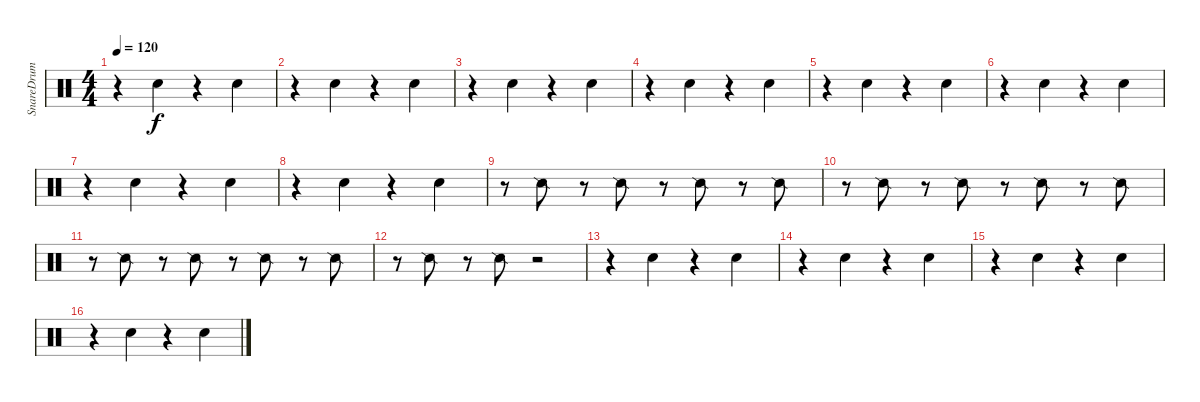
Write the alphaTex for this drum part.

\track ("SnareDrum" "SnareDrum") {instrument percussion}
\staff {score}
\articulation defaults
\ts (4 4)
\tempo 120
\clef neutral
\ks c
r.4{dy f} "Snare (hit) 2".4 r.4 "Snare (hit) 2".4 |
r.4 "Snare (hit) 2".4 r.4 "Snare (hit) 2".4 |
r.4 "Snare (hit) 2".4 r.4 "Snare (hit) 2".4 |
r.4 "Snare (hit) 2".4 r.4 "Snare (hit) 2".4 |
r.4 "Snare (hit) 2".4 r.4 "Snare (hit) 2".4 |
r.4 "Snare (hit) 2".4 r.4 "Snare (hit) 2".4 |
r.4 "Snare (hit) 2".4 r.4 "Snare (hit) 2".4 |
r.4 "Snare (hit) 2".4 r.4 "Snare (hit) 2".4 |
r.8 "Snare (side stick) 2".8 r.8 "Snare (side stick) 2".8 r.8 "Snare (side stick) 2".8 r.8 "Snare (side stick) 2".8 |
r.8 "Snare (side stick) 2".8 r.8 "Snare (side stick) 2".8 r.8 "Snare (side stick) 2".8 r.8 "Snare (side stick) 2".8 |
r.8 "Snare (side stick) 2".8 r.8 "Snare (side stick) 2".8 r.8 "Snare (side stick) 2".8 r.8 "Snare (side stick) 2".8 |
r.8 "Snare (side stick) 2".8 r.8 "Snare (side stick) 2".8 r.2 |
r.4 "Snare (hit) 2".4 r.4 "Snare (hit) 2".4 |
r.4 "Snare (hit) 2".4 r.4 "Snare (hit) 2".4 |
r.4 "Snare (hit) 2".4 r.4 "Snare (hit) 2".4 |
r.4 "Snare (hit) 2".4 r.4 "Snare (hit) 2".4
